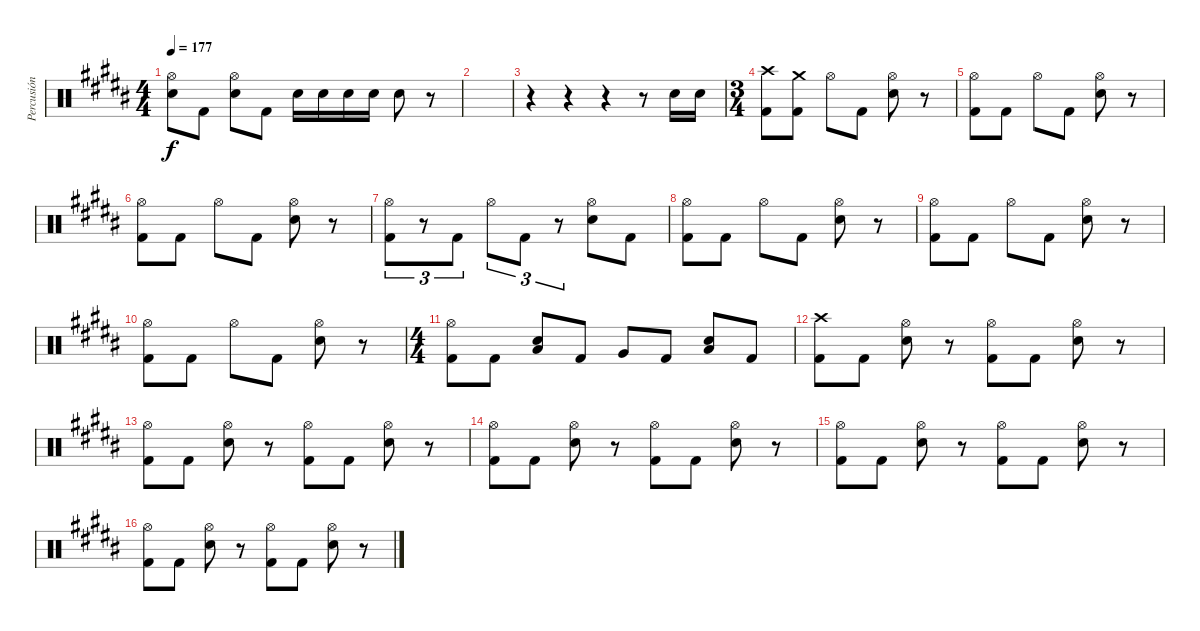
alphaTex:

\track ("Percusión" "Percusión") {instrument percussion}
\staff {score}
\articulation defaults
\ts (4 4)
\tempo 177
\clef neutral
\ks g#minor
("Snare (hit) 2" "Hi-Hat (open)").8{dy f} "Kick (hit) 2".8 ("Snare (hit) 2" "Hi-Hat (open)").8 "Kick (hit) 2".8 "Snare (hit) 2".16 "Snare (hit) 2".16 "Snare (hit) 2".16 "Snare (hit) 2".16 "Snare (hit) 2".8 r.8 |
|
r.4 r.4 r.4 r.8 "Snare (hit) 2".16 "Snare (hit) 2".16 |
\ts (3 4)
("Kick (hit) 2" "Crash high (hit)").8 ("Kick (hit) 2" "Crash medium (hit)").8 "Hi-Hat (open)".8 "Kick (hit) 2".8 ("Snare (hit) 2" "Hi-Hat (open)").8 r.8 |
("Kick (hit) 2" "Hi-Hat (open)").8 "Kick (hit) 2".8 "Hi-Hat (open)".8 "Kick (hit) 2".8 ("Snare (hit) 2" "Hi-Hat (open)").8 r.8 |
("Kick (hit) 2" "Hi-Hat (open)").8 "Kick (hit) 2".8 "Hi-Hat (open)".8 "Kick (hit) 2".8 ("Snare (hit) 2" "Hi-Hat (open)").8 r.8 |
("Kick (hit) 2" "Hi-Hat (open)").8{tu (3 2)} r.8{tu (3 2)} "Kick (hit) 2".8{tu (3 2)} "Hi-Hat (open)".8{tu (3 2)} "Kick (hit) 2".8{tu (3 2)} r.8{tu (3 2)} ("Snare (hit) 2" "Hi-Hat (open)").8 "Kick (hit) 2".8 |
("Kick (hit) 2" "Hi-Hat (open)").8 "Kick (hit) 2".8 "Hi-Hat (open)".8 "Kick (hit) 2".8 ("Snare (hit) 2" "Hi-Hat (open)").8 r.8 |
("Kick (hit) 2" "Hi-Hat (open)").8 "Kick (hit) 2".8 "Hi-Hat (open)".8 "Kick (hit) 2".8 ("Snare (hit) 2" "Hi-Hat (open)").8 r.8 |
("Kick (hit) 2" "Hi-Hat (open)").8 "Kick (hit) 2".8 "Hi-Hat (open)".8 "Kick (hit) 2".8 ("Snare (hit) 2" "Hi-Hat (open)").8 r.8 |
\ts (4 4)
("Kick (hit) 2" "Hi-Hat (open)").8 "Kick (hit) 2".8 ("Snare (hit) 2" "Low Tom (hit)").8 "Kick (hit) 2".8 "Very Low Tom (hit)".8 "Kick (hit) 2".8 ("Snare (hit) 2" "Low Floor Tom (hit)").8 "Kick (hit) 2".8 |
("Kick (hit) 2" "Crash high (hit)").8 "Kick (hit) 2".8 ("Snare (hit) 2" "Hi-Hat (open)").8 r.8 ("Kick (hit) 2" "Hi-Hat (open)").8 "Kick (hit) 2".8 ("Snare (hit) 2" "Hi-Hat (open)").8 r.8 |
("Kick (hit) 2" "Hi-Hat (open)").8 "Kick (hit) 2".8 ("Snare (hit) 2" "Hi-Hat (open)").8 r.8 ("Kick (hit) 2" "Hi-Hat (open)").8 "Kick (hit) 2".8 ("Snare (hit) 2" "Hi-Hat (open)").8 r.8 |
("Kick (hit) 2" "Hi-Hat (open)").8 "Kick (hit) 2".8 ("Snare (hit) 2" "Hi-Hat (open)").8 r.8 ("Kick (hit) 2" "Hi-Hat (open)").8 "Kick (hit) 2".8 ("Snare (hit) 2" "Hi-Hat (open)").8 r.8 |
("Kick (hit) 2" "Hi-Hat (open)").8 "Kick (hit) 2".8 ("Snare (hit) 2" "Hi-Hat (open)").8 r.8 ("Kick (hit) 2" "Hi-Hat (open)").8 "Kick (hit) 2".8 ("Snare (hit) 2" "Hi-Hat (open)").8 r.8 |
("Kick (hit) 2" "Hi-Hat (open)").8 "Kick (hit) 2".8 ("Snare (hit) 2" "Hi-Hat (open)").8 r.8 ("Kick (hit) 2" "Hi-Hat (open)").8 "Kick (hit) 2".8 ("Snare (hit) 2" "Hi-Hat (open)").8 r.8
